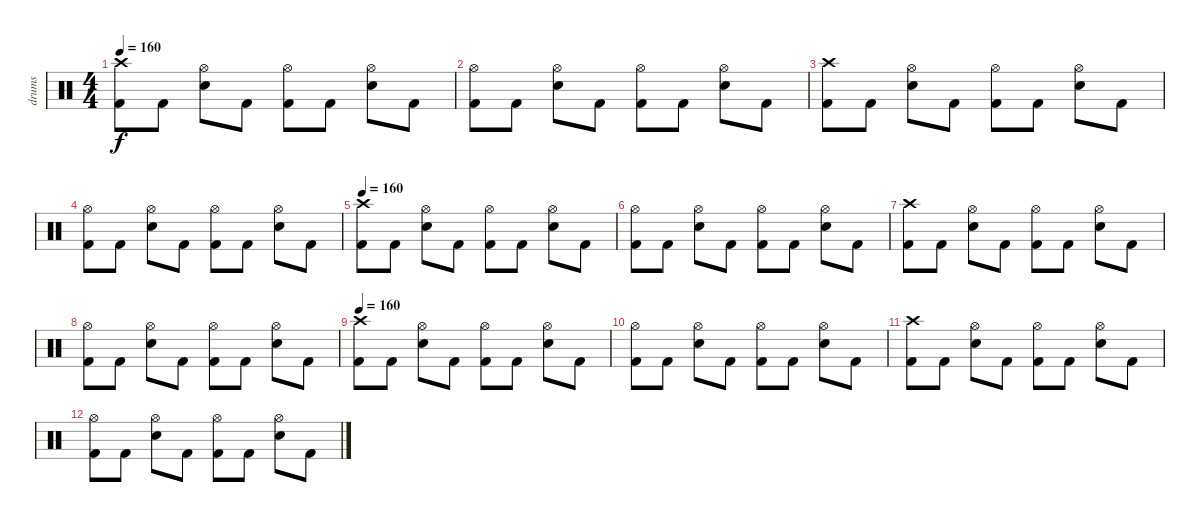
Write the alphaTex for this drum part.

\track ("drums" "drums") {instrument percussion}
\staff {score}
\articulation defaults
\ts (4 4)
\tempo 160
\clef neutral
\ks c
("Crash high (hit)" "Kick (hit) 2").8{dy f volume 10} "Kick (hit) 2".8 ("Hi-Hat (open)" "Electric Snare (hit)").8 "Kick (hit) 2".8 ("Hi-Hat (open)" "Kick (hit) 2").8 "Kick (hit) 2".8 ("Hi-Hat (open)" "Electric Snare (hit)").8 "Kick (hit) 2".8 |
("Hi-Hat (open)" "Kick (hit) 2").8 "Kick (hit) 2".8 ("Hi-Hat (open)" "Electric Snare (hit)").8 "Kick (hit) 2".8 ("Hi-Hat (open)" "Kick (hit) 2").8 "Kick (hit) 2".8 ("Hi-Hat (open)" "Electric Snare (hit)").8 "Kick (hit) 2".8 |
("Crash high (hit)" "Kick (hit) 2").8 "Kick (hit) 2".8 ("Hi-Hat (open)" "Electric Snare (hit)").8 "Kick (hit) 2".8 ("Hi-Hat (open)" "Kick (hit) 2").8 "Kick (hit) 2".8 ("Hi-Hat (open)" "Electric Snare (hit)").8 "Kick (hit) 2".8 |
("Hi-Hat (open)" "Kick (hit) 2").8 "Kick (hit) 2".8 ("Hi-Hat (open)" "Electric Snare (hit)").8 "Kick (hit) 2".8 ("Hi-Hat (open)" "Kick (hit) 2").8 "Kick (hit) 2".8 ("Hi-Hat (open)" "Electric Snare (hit)").8 "Kick (hit) 2".8 |
\tempo 160
("Crash high (hit)" "Kick (hit) 2").8{volume 8} "Kick (hit) 2".8 ("Hi-Hat (open)" "Electric Snare (hit)").8 "Kick (hit) 2".8 ("Hi-Hat (open)" "Kick (hit) 2").8 "Kick (hit) 2".8 ("Hi-Hat (open)" "Electric Snare (hit)").8 "Kick (hit) 2".8 |
("Hi-Hat (open)" "Kick (hit) 2").8 "Kick (hit) 2".8 ("Hi-Hat (open)" "Electric Snare (hit)").8 "Kick (hit) 2".8 ("Hi-Hat (open)" "Kick (hit) 2").8 "Kick (hit) 2".8 ("Hi-Hat (open)" "Electric Snare (hit)").8 "Kick (hit) 2".8 |
("Crash high (hit)" "Kick (hit) 2").8 "Kick (hit) 2".8 ("Hi-Hat (open)" "Electric Snare (hit)").8 "Kick (hit) 2".8 ("Hi-Hat (open)" "Kick (hit) 2").8 "Kick (hit) 2".8 ("Hi-Hat (open)" "Electric Snare (hit)").8 "Kick (hit) 2".8 |
("Hi-Hat (open)" "Kick (hit) 2").8 "Kick (hit) 2".8 ("Hi-Hat (open)" "Electric Snare (hit)").8 "Kick (hit) 2".8 ("Hi-Hat (open)" "Kick (hit) 2").8 "Kick (hit) 2".8 ("Hi-Hat (open)" "Electric Snare (hit)").8 "Kick (hit) 2".8 |
\tempo 160
("Crash high (hit)" "Kick (hit) 2").8{volume 0} "Kick (hit) 2".8 ("Hi-Hat (open)" "Electric Snare (hit)").8 "Kick (hit) 2".8 ("Hi-Hat (open)" "Kick (hit) 2").8 "Kick (hit) 2".8 ("Hi-Hat (open)" "Electric Snare (hit)").8 "Kick (hit) 2".8 |
("Hi-Hat (open)" "Kick (hit) 2").8 "Kick (hit) 2".8 ("Hi-Hat (open)" "Electric Snare (hit)").8 "Kick (hit) 2".8 ("Hi-Hat (open)" "Kick (hit) 2").8 "Kick (hit) 2".8 ("Hi-Hat (open)" "Electric Snare (hit)").8 "Kick (hit) 2".8 |
("Crash high (hit)" "Kick (hit) 2").8 "Kick (hit) 2".8 ("Hi-Hat (open)" "Electric Snare (hit)").8 "Kick (hit) 2".8 ("Hi-Hat (open)" "Kick (hit) 2").8 "Kick (hit) 2".8 ("Hi-Hat (open)" "Electric Snare (hit)").8 "Kick (hit) 2".8 |
("Hi-Hat (open)" "Kick (hit) 2").8 "Kick (hit) 2".8 ("Hi-Hat (open)" "Electric Snare (hit)").8 "Kick (hit) 2".8 ("Hi-Hat (open)" "Kick (hit) 2").8 "Kick (hit) 2".8 ("Hi-Hat (open)" "Electric Snare (hit)").8 "Kick (hit) 2".8
